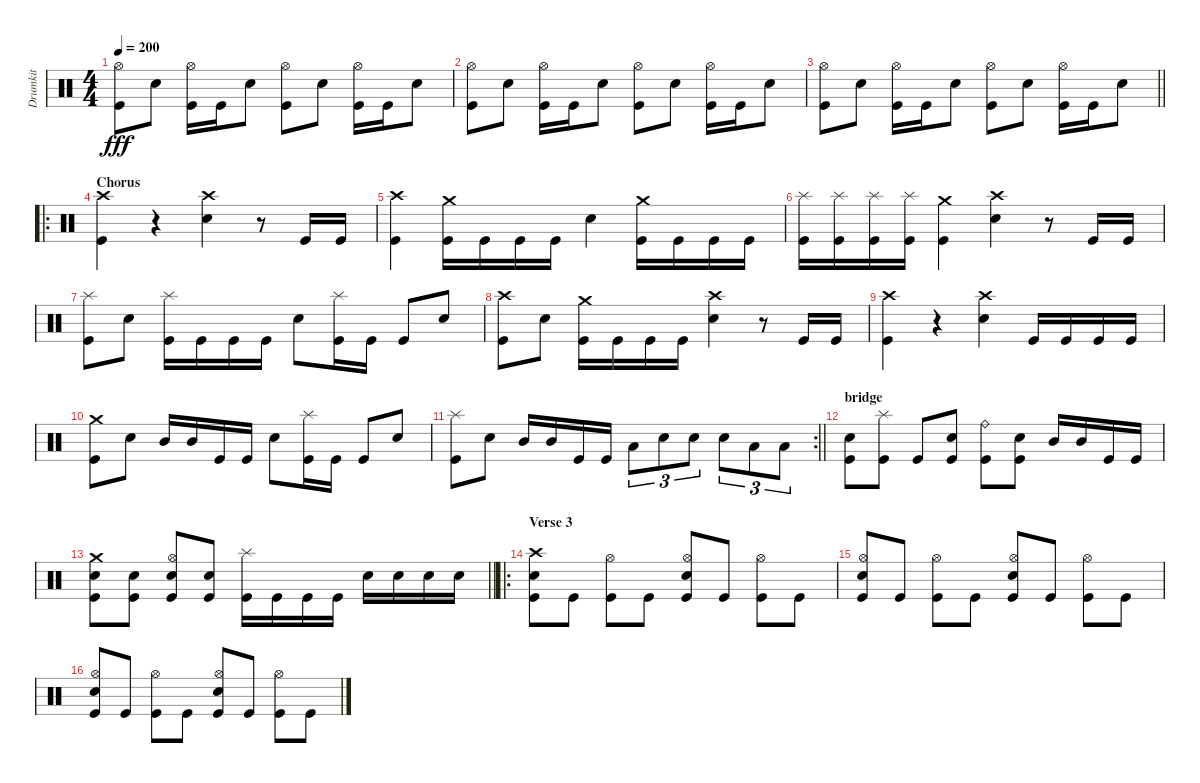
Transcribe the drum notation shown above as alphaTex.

\track ("Drumkit" "Drumkit") {instrument percussion}
\staff {score}
\articulation defaults
\ts (4 4)
\tempo 200
\clef neutral
\ks c
("Kick (hit)" "Hi-Hat (open)").8{dy fff} "Snare (hit) 2".8 ("Kick (hit)" "Hi-Hat (open)").16 "Kick (hit)".16 "Snare (hit) 2".8 ("Kick (hit)" "Hi-Hat (open)").8 "Snare (hit) 2".8 ("Kick (hit)" "Hi-Hat (open)").16 "Kick (hit)".16 "Snare (hit) 2".8 |
("Kick (hit)" "Hi-Hat (open)").8 "Snare (hit) 2".8 ("Kick (hit)" "Hi-Hat (open)").16 "Kick (hit)".16 "Snare (hit) 2".8 ("Kick (hit)" "Hi-Hat (open)").8 "Snare (hit) 2".8 ("Kick (hit)" "Hi-Hat (open)").16 "Kick (hit)".16 "Snare (hit) 2".8 |
\barLineRight lightlight
("Kick (hit)" "Hi-Hat (open)").8 "Snare (hit) 2".8 ("Kick (hit)" "Hi-Hat (open)").16 "Kick (hit)".16 "Snare (hit) 2".8 ("Kick (hit)" "Hi-Hat (open)").8 "Snare (hit) 2".8 ("Kick (hit)" "Hi-Hat (open)").16 "Kick (hit)".16 "Snare (hit) 2".8 |
\ro
\section ("" "Chorus")
("Crash high (hit)" "Kick (hit)").4 r.4 ("Crash high (hit)" "Snare (hit) 2").4 r.8 "Kick (hit)".16 "Kick (hit)".16 |
("Crash high (hit)" "Kick (hit)").4 ("Crash medium (hit)" "Kick (hit)").16 "Kick (hit)".16 "Kick (hit)".16 "Kick (hit)".16 "Snare (hit) 2".4 ("Crash medium (hit)" "Kick (hit)").16 "Kick (hit)".16 "Kick (hit)".16 "Kick (hit)".16 |
("Kick (hit)" "Splash (hit)").16 ("Kick (hit)" "Splash (hit)").16 ("Kick (hit)" "Splash (hit)").16 ("Kick (hit)" "Splash (hit)").16 ("Crash medium (hit)" "Kick (hit)").4 ("Crash high (hit)" "Snare (hit) 2").4 r.8 "Kick (hit)".16 "Kick (hit)".16 |
("Kick (hit)" "Splash (hit)").8 "Snare (hit) 2".8 ("Splash (hit)" "Kick (hit)").16 "Kick (hit)".16 "Kick (hit)".16 "Kick (hit)".16 "Snare (hit) 2".8 ("Splash (hit)" "Kick (hit)").16 "Kick (hit)".16 "Kick (hit)".8 "Snare (hit) 2".8 |
("Crash high (hit)" "Kick (hit)").8 "Snare (hit) 2".8 ("Crash medium (hit)" "Kick (hit)").16 "Kick (hit)".16 "Kick (hit)".16 "Kick (hit)".16 ("Crash high (hit)" "Snare (hit) 2").4 r.8 "Kick (hit)".16 "Kick (hit)".16 |
("Crash high (hit)" "Kick (hit)").4 r.4 ("Crash high (hit)" "Snare (hit) 2").4 "Kick (hit)".16 "Kick (hit)".16 "Kick (hit)".16 "Kick (hit)".16 |
("Crash medium (hit)" "Kick (hit)").8 "Snare (hit) 2".8 "Mid Tom (hit)".16 "Mid Tom (hit)".16 "Kick (hit)".16 "Kick (hit)".16 "Snare (hit) 2".8 ("Kick (hit)" "Splash (hit)").16 "Kick (hit)".16 "Kick (hit)".8 "Snare (hit) 2".8 |
\rc 2
\barLineRight lightlight
("Kick (hit)" "Splash (hit)").8 "Snare (hit) 2".8 "Mid Tom (hit)".16 "Mid Tom (hit)".16 "Kick (hit)".16 "Kick (hit)".16 "Low Tom (hit)".8{tu (3 2)} "Snare (hit) 2".8{tu (3 2)} "Snare (hit) 2".8{tu (3 2)} "Snare (hit) 2".8{tu (3 2)} "Low Floor Tom (hit)".8{tu (3 2)} "Low Floor Tom (hit)".8{tu (3 2)} |
\section ("" "bridge")
("Snare (hit) 2" "Kick (hit)").8 ("Kick (hit)" "Splash (hit)").8 "Kick (hit)".8 ("Kick (hit)" "Snare (hit) 2").8 ("Kick (hit)" "Ride (bell)").8 ("Kick (hit)" "Snare (hit) 2").8 "Mid Tom (hit)".16 "Mid Tom (hit)".16 "Kick (hit)".16 "Kick (hit)".16 |
\barLineRight lightlight
("Snare (hit) 2" "Crash medium (hit)" "Kick (hit)").8 ("Snare (hit) 2" "Kick (hit)").8 ("Snare (hit) 2" "Kick (hit)" "Hi-Hat (open)").8 ("Snare (hit) 2" "Kick (hit)").8 ("Kick (hit)" "Splash (hit)").16 "Kick (hit)".16 "Kick (hit)".16 "Kick (hit)".16 "Snare (hit) 2".16 "Snare (hit) 2".16 "Snare (hit) 2".16 "Snare (hit) 2".16 |
\ro
\section ("" "Verse 3")
("Kick (hit)" "Snare (hit) 2" "Crash high (hit)").8 "Kick (hit)".8 ("Kick (hit)" "Hi-Hat (open)").8 "Kick (hit)".8 ("Kick (hit)" "Snare (hit) 2" "Hi-Hat (open)").8 "Kick (hit)".8 ("Kick (hit)" "Hi-Hat (open)").8 "Kick (hit)".8 |
("Kick (hit)" "Snare (hit) 2" "Hi-Hat (open)").8 "Kick (hit)".8 ("Kick (hit)" "Hi-Hat (open)").8 "Kick (hit)".8 ("Kick (hit)" "Snare (hit) 2" "Hi-Hat (open)").8 "Kick (hit)".8 ("Kick (hit)" "Hi-Hat (open)").8 "Kick (hit)".8 |
("Kick (hit)" "Snare (hit) 2" "Hi-Hat (open)").8 "Kick (hit)".8 ("Kick (hit)" "Hi-Hat (open)").8 "Kick (hit)".8 ("Kick (hit)" "Snare (hit) 2" "Hi-Hat (open)").8 "Kick (hit)".8 ("Kick (hit)" "Hi-Hat (open)").8 "Kick (hit)".8
